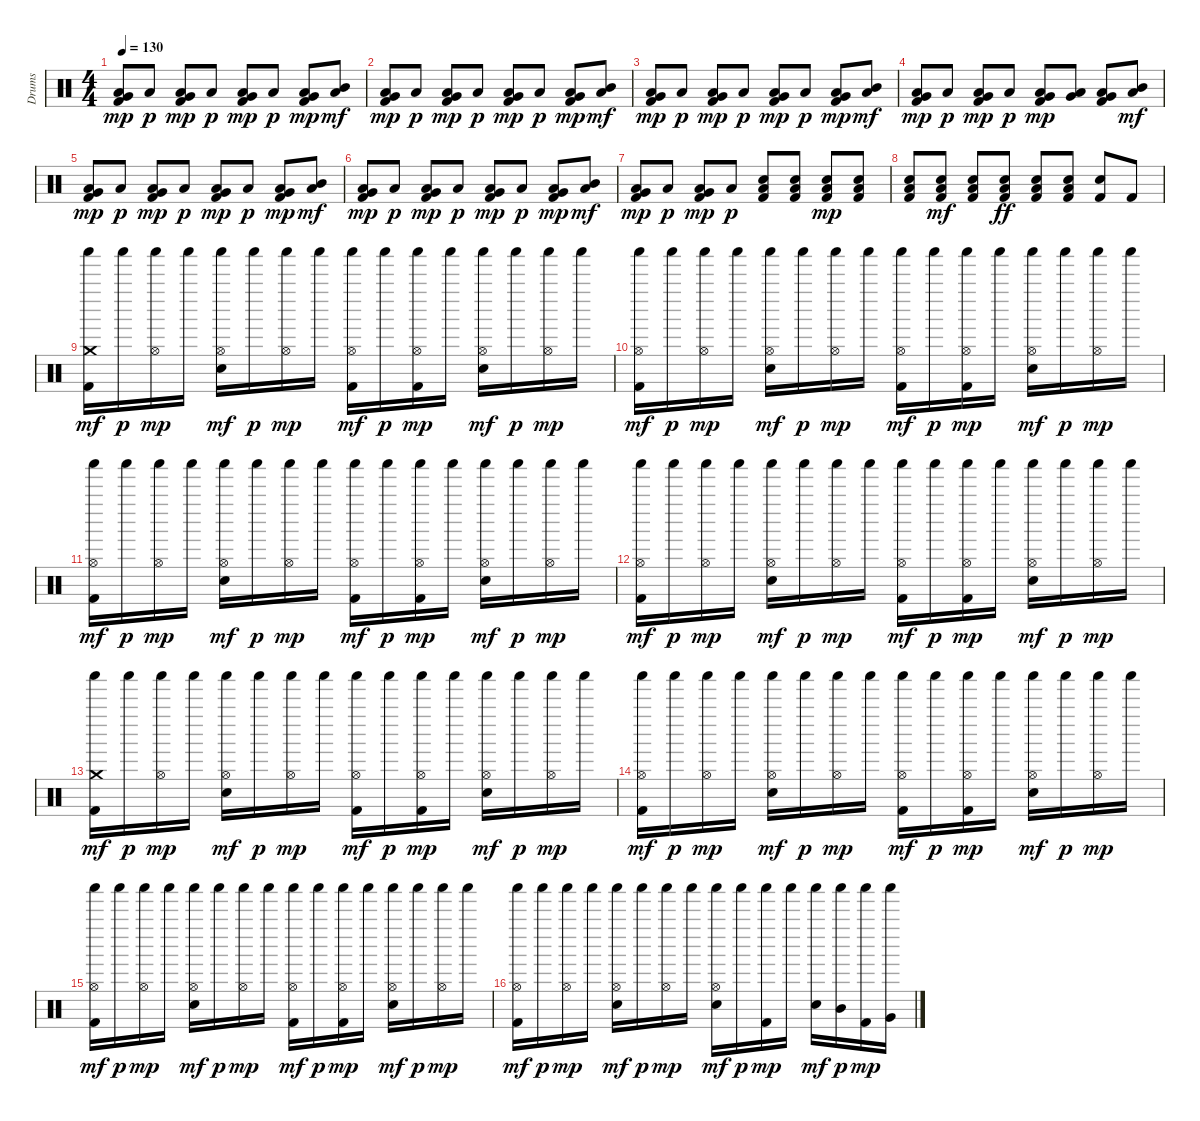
\track ("Drums" "Drums") {instrument percussion}
\staff {score}
\articulation defaults
\ts (4 4)
\tempo 130
\clef neutral
\ks c
("Kick (hit) 2" "Low Floor Tom (hit)" "Very Low Tom (hit)").8{dy mp} "Low Floor Tom (hit)".8{dy p} ("Kick (hit) 2" "Low Floor Tom (hit)" "Very Low Tom (hit)").8{dy mp} "Low Floor Tom (hit)".8{dy p} ("Kick (hit) 2" "Low Floor Tom (hit)" "Very Low Tom (hit)").8{dy mp} "Low Floor Tom (hit)".8{dy p} ("Kick (hit) 2" "Low Floor Tom (hit)" "Very Low Tom (hit)").8{dy mp} ("Low Tom (hit)" "Mid Tom (hit)").8{dy mf} |
("Kick (hit) 2" "Low Floor Tom (hit)" "Very Low Tom (hit)").8{dy mp} "Low Floor Tom (hit)".8{dy p} ("Kick (hit) 2" "Low Floor Tom (hit)" "Very Low Tom (hit)").8{dy mp} "Low Floor Tom (hit)".8{dy p} ("Kick (hit) 2" "Low Floor Tom (hit)" "Very Low Tom (hit)").8{dy mp} "Low Floor Tom (hit)".8{dy p} ("Kick (hit) 2" "Low Floor Tom (hit)" "Very Low Tom (hit)").8{dy mp} ("Low Tom (hit)" "Mid Tom (hit)").8{dy mf} |
("Kick (hit) 2" "Low Floor Tom (hit)" "Very Low Tom (hit)").8{dy mp} "Low Floor Tom (hit)".8{dy p} ("Kick (hit) 2" "Low Floor Tom (hit)" "Very Low Tom (hit)").8{dy mp} "Low Floor Tom (hit)".8{dy p} ("Kick (hit) 2" "Low Floor Tom (hit)" "Very Low Tom (hit)").8{dy mp} "Low Floor Tom (hit)".8{dy p} ("Kick (hit) 2" "Low Floor Tom (hit)" "Very Low Tom (hit)").8{dy mp} ("Low Tom (hit)" "Mid Tom (hit)").8{dy mf} |
("Kick (hit) 2" "Low Floor Tom (hit)" "Very Low Tom (hit)").8{dy mp} "Low Floor Tom (hit)".8{dy p} ("Kick (hit) 2" "Low Floor Tom (hit)" "Very Low Tom (hit)").8{dy mp} "Low Floor Tom (hit)".8{dy p} ("Kick (hit) 2" "Low Floor Tom (hit)" "Very Low Tom (hit)").8{dy mp} ("Low Floor Tom (hit)" "Very Low Tom (hit)").8 ("Kick (hit) 2" "Low Floor Tom (hit)" "Very Low Tom (hit)").8 ("Low Tom (hit)" "Mid Tom (hit)").8{dy mf} |
("Kick (hit) 2" "Low Floor Tom (hit)" "Very Low Tom (hit)").8{dy mp} "Low Floor Tom (hit)".8{dy p} ("Kick (hit) 2" "Low Floor Tom (hit)" "Very Low Tom (hit)").8{dy mp} "Low Floor Tom (hit)".8{dy p} ("Kick (hit) 2" "Low Floor Tom (hit)" "Very Low Tom (hit)").8{dy mp} "Low Floor Tom (hit)".8{dy p} ("Kick (hit) 2" "Low Floor Tom (hit)" "Very Low Tom (hit)").8{dy mp} ("Low Tom (hit)" "Mid Tom (hit)").8{dy mf} |
("Kick (hit) 2" "Low Floor Tom (hit)" "Very Low Tom (hit)").8{dy mp} "Low Floor Tom (hit)".8{dy p} ("Kick (hit) 2" "Low Floor Tom (hit)" "Very Low Tom (hit)").8{dy mp} "Low Floor Tom (hit)".8{dy p} ("Kick (hit) 2" "Low Floor Tom (hit)" "Very Low Tom (hit)").8{dy mp} "Low Floor Tom (hit)".8{dy p} ("Kick (hit) 2" "Low Floor Tom (hit)" "Very Low Tom (hit)").8{dy mp} ("Low Tom (hit)" "Mid Tom (hit)").8{dy mf} |
("Kick (hit) 2" "Low Floor Tom (hit)" "Very Low Tom (hit)").8{dy mp} "Low Floor Tom (hit)".8{dy p} ("Kick (hit) 2" "Low Floor Tom (hit)" "Very Low Tom (hit)").8{dy mp} "Low Floor Tom (hit)".8{dy p} ("Kick (hit) 2" "Snare (hit) 2" "Low Floor Tom (hit)").8 ("Kick (hit) 2" "Snare (hit) 2" "Low Floor Tom (hit)").8 ("Kick (hit) 2" "Snare (hit) 2" "Low Floor Tom (hit)").8{dy mp} ("Kick (hit) 2" "Snare (hit) 2" "Low Floor Tom (hit)").8 |
("Kick (hit) 2" "Snare (hit) 2" "Low Floor Tom (hit)").8 ("Kick (hit) 2" "Snare (hit) 2" "Low Floor Tom (hit)").8{dy mf} ("Kick (hit) 2" "Snare (hit) 2" "Low Floor Tom (hit)").8 ("Kick (hit) 2" "Snare (hit) 2" "Low Floor Tom (hit)").8{dy ff} ("Kick (hit) 2" "Snare (hit) 2" "Low Floor Tom (hit)").8 ("Kick (hit) 2" "Snare (hit) 2" "Low Floor Tom (hit)").8 ("Kick (hit) 2" "Snare (hit) 2").8 "Kick (hit) 2".8 |
("Kick (hit) 2" "Crash medium (hit)" "Shaker (hit)").16{dy mf} "Shaker (hit)".16{dy p} ("Hi-Hat (open)" "Shaker (hit)").16{dy mp} "Shaker (hit)".16 ("Snare (hit) 2" "Hi-Hat (open)" "Shaker (hit)").16{dy mf} "Shaker (hit)".16{dy p} ("Hi-Hat (open)" "Shaker (hit)").16{dy mp} "Shaker (hit)".16 ("Kick (hit) 2" "Hi-Hat (open)" "Shaker (hit)").16{dy mf} "Shaker (hit)".16{dy p} ("Kick (hit) 2" "Hi-Hat (open)" "Shaker (hit)").16{dy mp} "Shaker (hit)".16 ("Snare (hit) 2" "Hi-Hat (open)" "Shaker (hit)").16{dy mf} "Shaker (hit)".16{dy p} ("Hi-Hat (open)" "Shaker (hit)").16{dy mp} "Shaker (hit)".16 |
("Kick (hit) 2" "Hi-Hat (open)" "Shaker (hit)").16{dy mf} "Shaker (hit)".16{dy p} ("Hi-Hat (open)" "Shaker (hit)").16{dy mp} "Shaker (hit)".16 ("Snare (hit) 2" "Hi-Hat (open)" "Shaker (hit)").16{dy mf} "Shaker (hit)".16{dy p} ("Hi-Hat (open)" "Shaker (hit)").16{dy mp} "Shaker (hit)".16 ("Kick (hit) 2" "Hi-Hat (open)" "Shaker (hit)").16{dy mf} "Shaker (hit)".16{dy p} ("Kick (hit) 2" "Hi-Hat (open)" "Shaker (hit)").16{dy mp} "Shaker (hit)".16 ("Snare (hit) 2" "Hi-Hat (open)" "Shaker (hit)").16{dy mf} "Shaker (hit)".16{dy p} ("Hi-Hat (open)" "Shaker (hit)").16{dy mp} "Shaker (hit)".16 |
("Kick (hit) 2" "Hi-Hat (open)" "Shaker (hit)").16{dy mf} "Shaker (hit)".16{dy p} ("Hi-Hat (open)" "Shaker (hit)").16{dy mp} "Shaker (hit)".16 ("Snare (hit) 2" "Hi-Hat (open)" "Shaker (hit)").16{dy mf} "Shaker (hit)".16{dy p} ("Hi-Hat (open)" "Shaker (hit)").16{dy mp} "Shaker (hit)".16 ("Kick (hit) 2" "Hi-Hat (open)" "Shaker (hit)").16{dy mf} "Shaker (hit)".16{dy p} ("Kick (hit) 2" "Hi-Hat (open)" "Shaker (hit)").16{dy mp} "Shaker (hit)".16 ("Snare (hit) 2" "Hi-Hat (open)" "Shaker (hit)").16{dy mf} "Shaker (hit)".16{dy p} ("Hi-Hat (open)" "Shaker (hit)").16{dy mp} "Shaker (hit)".16 |
("Kick (hit) 2" "Hi-Hat (open)" "Shaker (hit)").16{dy mf} "Shaker (hit)".16{dy p} ("Hi-Hat (open)" "Shaker (hit)").16{dy mp} "Shaker (hit)".16 ("Snare (hit) 2" "Hi-Hat (open)" "Shaker (hit)").16{dy mf} "Shaker (hit)".16{dy p} ("Hi-Hat (open)" "Shaker (hit)").16{dy mp} "Shaker (hit)".16 ("Kick (hit) 2" "Hi-Hat (open)" "Shaker (hit)").16{dy mf} "Shaker (hit)".16{dy p} ("Kick (hit) 2" "Hi-Hat (open)" "Shaker (hit)").16{dy mp} "Shaker (hit)".16 ("Snare (hit) 2" "Hi-Hat (open)" "Shaker (hit)").16{dy mf} "Shaker (hit)".16{dy p} ("Hi-Hat (open)" "Shaker (hit)").16{dy mp} "Shaker (hit)".16 |
("Kick (hit) 2" "Crash medium (hit)" "Shaker (hit)").16{dy mf} "Shaker (hit)".16{dy p} ("Hi-Hat (open)" "Shaker (hit)").16{dy mp} "Shaker (hit)".16 ("Snare (hit) 2" "Hi-Hat (open)" "Shaker (hit)").16{dy mf} "Shaker (hit)".16{dy p} ("Hi-Hat (open)" "Shaker (hit)").16{dy mp} "Shaker (hit)".16 ("Kick (hit) 2" "Hi-Hat (open)" "Shaker (hit)").16{dy mf} "Shaker (hit)".16{dy p} ("Kick (hit) 2" "Hi-Hat (open)" "Shaker (hit)").16{dy mp} "Shaker (hit)".16 ("Snare (hit) 2" "Hi-Hat (open)" "Shaker (hit)").16{dy mf} "Shaker (hit)".16{dy p} ("Hi-Hat (open)" "Shaker (hit)").16{dy mp} "Shaker (hit)".16 |
("Kick (hit) 2" "Hi-Hat (open)" "Shaker (hit)").16{dy mf} "Shaker (hit)".16{dy p} ("Hi-Hat (open)" "Shaker (hit)").16{dy mp} "Shaker (hit)".16 ("Snare (hit) 2" "Hi-Hat (open)" "Shaker (hit)").16{dy mf} "Shaker (hit)".16{dy p} ("Hi-Hat (open)" "Shaker (hit)").16{dy mp} "Shaker (hit)".16 ("Kick (hit) 2" "Hi-Hat (open)" "Shaker (hit)").16{dy mf} "Shaker (hit)".16{dy p} ("Kick (hit) 2" "Hi-Hat (open)" "Shaker (hit)").16{dy mp} "Shaker (hit)".16 ("Snare (hit) 2" "Hi-Hat (open)" "Shaker (hit)").16{dy mf} "Shaker (hit)".16{dy p} ("Hi-Hat (open)" "Shaker (hit)").16{dy mp} "Shaker (hit)".16 |
("Kick (hit) 2" "Hi-Hat (open)" "Shaker (hit)").16{dy mf} "Shaker (hit)".16{dy p} ("Hi-Hat (open)" "Shaker (hit)").16{dy mp} "Shaker (hit)".16 ("Snare (hit) 2" "Hi-Hat (open)" "Shaker (hit)").16{dy mf} "Shaker (hit)".16{dy p} ("Hi-Hat (open)" "Shaker (hit)").16{dy mp} "Shaker (hit)".16 ("Kick (hit) 2" "Hi-Hat (open)" "Shaker (hit)").16{dy mf} "Shaker (hit)".16{dy p} ("Kick (hit) 2" "Hi-Hat (open)" "Shaker (hit)").16{dy mp} "Shaker (hit)".16 ("Snare (hit) 2" "Hi-Hat (open)" "Shaker (hit)").16{dy mf} "Shaker (hit)".16{dy p} ("Hi-Hat (open)" "Shaker (hit)").16{dy mp} "Shaker (hit)".16 |
("Kick (hit) 2" "Hi-Hat (open)" "Shaker (hit)").16{dy mf} "Shaker (hit)".16{dy p} ("Hi-Hat (open)" "Shaker (hit)").16{dy mp} "Shaker (hit)".16 ("Snare (hit) 2" "Hi-Hat (open)" "Shaker (hit)").16{dy mf} "Shaker (hit)".16{dy p} ("Hi-Hat (open)" "Shaker (hit)").16{dy mp} "Shaker (hit)".16 ("Snare (hit) 2" "Hi-Hat (open)" "Shaker (hit)").16{dy mf} "Shaker (hit)".16{dy p} ("Kick (hit) 2" "Shaker (hit)").16{dy mp} "Shaker (hit)".16 ("Snare (hit) 2" "Shaker (hit)").16{dy mf} ("Mid Tom (hit)" "Shaker (hit)").16{dy p} ("Kick (hit) 2" "Shaker (hit)").16{dy mp} ("Very Low Tom (hit)" "Shaker (hit)").16
